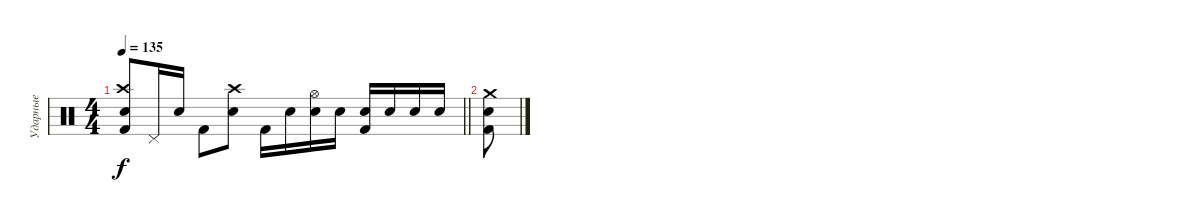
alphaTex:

\track ("Ударные" "Ударные") {instrument percussion}
\staff {score}
\articulation defaults
\ts (4 4)
\tempo 135
\clef neutral
\barLineRight lightlight
\ks c
("Electric Snare (hit)" "Crash high (hit)" "Kick (hit) 2").8{dy f} "Pedal Hi-Hat (hit)".16 "Electric Snare (hit)".16 "Kick (hit) 2".8 ("Electric Snare (hit)" "Crash high (hit)").8 "Kick (hit) 2".16 "Electric Snare (hit)".16 ("Electric Snare (hit)" "Hi-Hat (open)").16 "Electric Snare (hit)".16 ("Electric Snare (hit)" "Kick (hit) 2").16 "Electric Snare (hit)".16 "Electric Snare (hit)".16 "Electric Snare (hit)".16 |
("Kick (hit) 2" "Crash medium (hit)" "Electric Snare (hit)").8
